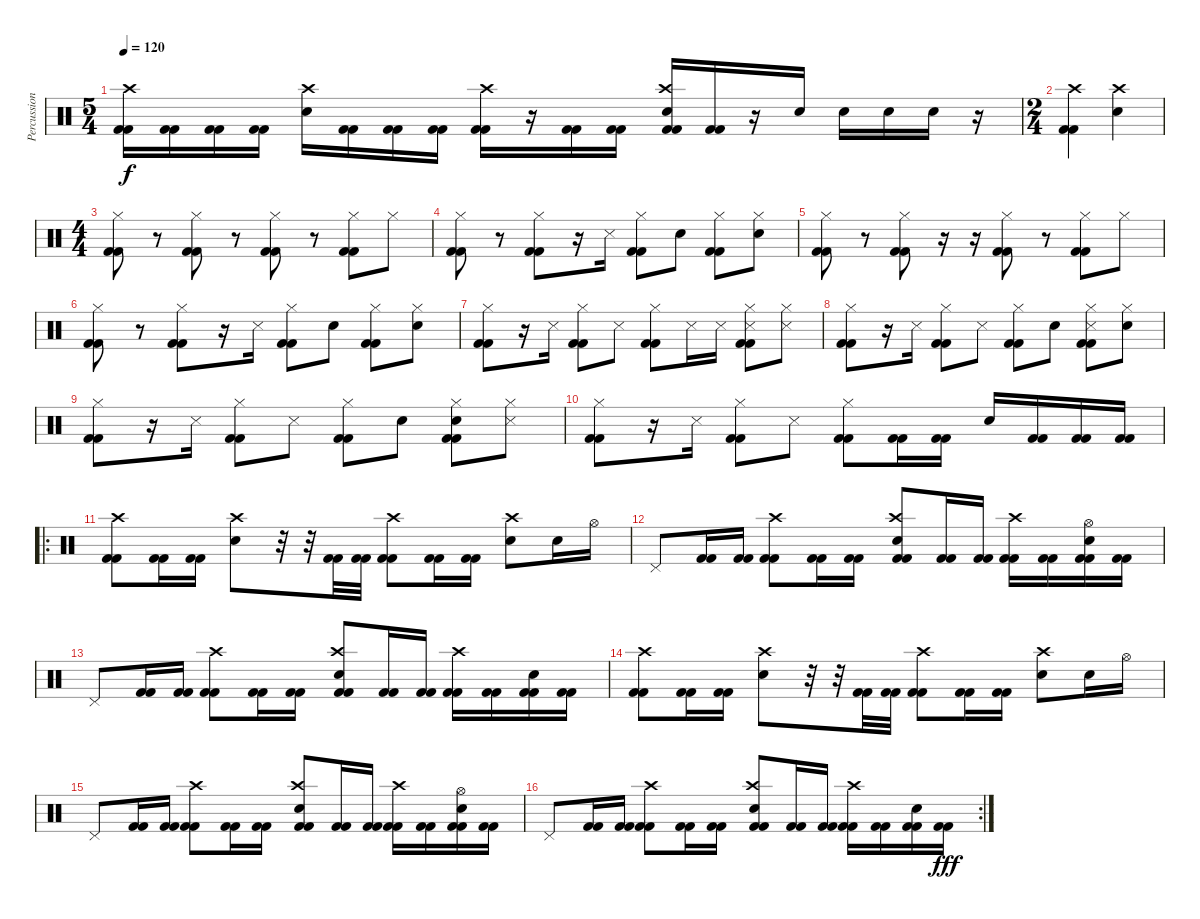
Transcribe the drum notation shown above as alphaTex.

\track ("Percussions" "Percussion") {instrument percussion}
\staff {score}
\articulation defaults
\ts (5 4)
\tempo 120
\clef neutral
\ks c
("Kick (hit) 2" "Kick (hit) 2" "Crash high (hit)").16{dy f} ("Kick (hit) 2" "Kick (hit) 2").16 ("Kick (hit) 2" "Kick (hit) 2").16 ("Kick (hit) 2" "Kick (hit) 2").16 ("Electric Snare (hit)" "Crash high (hit)").16 ("Kick (hit) 2" "Kick (hit) 2").16 ("Kick (hit) 2" "Kick (hit) 2").16 ("Kick (hit) 2" "Kick (hit) 2").16 ("Kick (hit) 2" "Kick (hit) 2" "Crash high (hit)").16 r.16 ("Kick (hit) 2" "Kick (hit) 2").16 ("Kick (hit) 2" "Kick (hit) 2").16 ("Kick (hit) 2" "Kick (hit) 2" "Electric Snare (hit)" "Crash high (hit)").16 ("Kick (hit) 2" "Kick (hit) 2").16 r.16 "Electric Snare (hit)".16 "Electric Snare (hit)".16 "Electric Snare (hit)".16 "Electric Snare (hit)".16 r.16 |
\ts (2 4)
("Kick (hit) 2" "Kick (hit) 2" "Crash high (hit)").4 ("Electric Snare (hit)" "Crash high (hit)").4 |
\ts (4 4)
("Kick (hit) 2" "Kick (hit) 2" "Hi-Hat (closed)").8 r.8 ("Kick (hit) 2" "Kick (hit) 2" "Hi-Hat (closed)").8 r.8 ("Kick (hit) 2" "Kick (hit) 2" "Hi-Hat (closed)").8 r.8 ("Kick (hit) 2" "Kick (hit) 2" "Hi-Hat (closed)").8 "Hi-Hat (closed)".8 |
("Kick (hit) 2" "Kick (hit) 2" "Hi-Hat (closed)").8 r.8 ("Kick (hit) 2" "Kick (hit) 2" "Hi-Hat (closed)").8 r.16 "Snare (side stick) 3".16 ("Kick (hit) 2" "Kick (hit) 2" "Hi-Hat (closed)").8 "Electric Snare (hit)".8 ("Kick (hit) 2" "Kick (hit) 2" "Hi-Hat (closed)").8 ("Electric Snare (hit)" "Hi-Hat (closed)").8 |
("Kick (hit) 2" "Kick (hit) 2" "Hi-Hat (closed)").8 r.8 ("Kick (hit) 2" "Kick (hit) 2" "Hi-Hat (closed)").8 r.16 r.16 ("Kick (hit) 2" "Kick (hit) 2" "Hi-Hat (closed)").8 r.8 ("Kick (hit) 2" "Kick (hit) 2" "Hi-Hat (closed)").8 "Hi-Hat (closed)".8 |
("Kick (hit) 2" "Kick (hit) 2" "Hi-Hat (closed)").8 r.8 ("Kick (hit) 2" "Kick (hit) 2" "Hi-Hat (closed)").8 r.16 "Snare (side stick) 3".16 ("Kick (hit) 2" "Kick (hit) 2" "Hi-Hat (closed)").8 "Electric Snare (hit)".8 ("Kick (hit) 2" "Kick (hit) 2" "Hi-Hat (closed)").8 ("Electric Snare (hit)" "Hi-Hat (closed)").8 |
("Kick (hit) 2" "Kick (hit) 2" "Hi-Hat (closed)").8 r.16 "Snare (side stick) 3".16 ("Kick (hit) 2" "Kick (hit) 2" "Hi-Hat (closed)").8 "Snare (side stick) 3".8 ("Kick (hit) 2" "Kick (hit) 2" "Hi-Hat (closed)").8 "Snare (side stick) 3".16 "Snare (side stick) 3".16 ("Kick (hit) 2" "Kick (hit) 2" "Snare (side stick) 3" "Hi-Hat (closed)").8 ("Snare (side stick) 3" "Hi-Hat (closed)").8 |
("Kick (hit) 2" "Kick (hit) 2" "Hi-Hat (closed)").8 r.16 "Snare (side stick) 3".16 ("Kick (hit) 2" "Kick (hit) 2" "Hi-Hat (closed)").8 "Snare (side stick) 3".8 ("Kick (hit) 2" "Kick (hit) 2" "Hi-Hat (closed)").8 "Electric Snare (hit)".8 ("Kick (hit) 2" "Kick (hit) 2" "Snare (side stick) 3" "Hi-Hat (closed)").8 ("Electric Snare (hit)" "Hi-Hat (closed)").8 |
("Kick (hit) 2" "Kick (hit) 2" "Hi-Hat (closed)").8 r.16 "Snare (side stick) 3".16 ("Kick (hit) 2" "Kick (hit) 2" "Hi-Hat (closed)").8 "Snare (side stick) 3".8 ("Kick (hit) 2" "Kick (hit) 2" "Hi-Hat (closed)").8 "Electric Snare (hit)".8 ("Kick (hit) 2" "Kick (hit) 2" "Electric Snare (hit)" "Hi-Hat (closed)").8 ("Snare (side stick) 3" "Hi-Hat (closed)").8 |
("Kick (hit) 2" "Kick (hit) 2" "Hi-Hat (closed)").8 r.16 "Snare (side stick) 3".16 ("Kick (hit) 2" "Kick (hit) 2" "Hi-Hat (closed)").8 "Snare (side stick) 3".8 ("Kick (hit) 2" "Kick (hit) 2" "Hi-Hat (closed)").8 ("Kick (hit) 2" "Kick (hit) 2").16 ("Kick (hit) 2" "Kick (hit) 2").16 "Electric Snare (hit)".16 ("Kick (hit) 2" "Kick (hit) 2").16 ("Kick (hit) 2" "Kick (hit) 2").16 ("Kick (hit) 2" "Kick (hit) 2").16 |
\ro
("Kick (hit) 2" "Kick (hit) 2" "Crash high (hit)").8 ("Kick (hit) 2" "Kick (hit) 2").16 ("Kick (hit) 2" "Kick (hit) 2").16 ("Electric Snare (hit)" "Crash high (hit)").8 r.32 r.32 ("Kick (hit) 2" "Kick (hit) 2").32 ("Kick (hit) 2" "Kick (hit) 2").32 ("Kick (hit) 2" "Kick (hit) 2" "Crash high (hit)").8 ("Kick (hit) 2" "Kick (hit) 2").16 ("Kick (hit) 2" "Kick (hit) 2").16 ("Electric Snare (hit)" "Crash high (hit)").8 "Electric Snare (hit)".16 "Hi-Hat (open)".16 |
"Pedal Hi-Hat (hit)".8 ("Kick (hit) 2" "Kick (hit) 2").16 ("Kick (hit) 2" "Kick (hit) 2").16 ("Kick (hit) 2" "Kick (hit) 2" "Crash high (hit)").8 ("Kick (hit) 2" "Kick (hit) 2").16 ("Kick (hit) 2" "Kick (hit) 2").16 ("Kick (hit) 2" "Kick (hit) 2" "Electric Snare (hit)" "Crash high (hit)").8 ("Kick (hit) 2" "Kick (hit) 2").16 ("Kick (hit) 2" "Kick (hit) 2").16 ("Kick (hit) 2" "Kick (hit) 2" "Crash high (hit)").16 ("Kick (hit) 2" "Kick (hit) 2").16 ("Kick (hit) 2" "Kick (hit) 2" "Electric Snare (hit)" "Hi-Hat (open)").16 ("Kick (hit) 2" "Kick (hit) 2").16 |
"Pedal Hi-Hat (hit)".8 ("Kick (hit) 2" "Kick (hit) 2").16 ("Kick (hit) 2" "Kick (hit) 2").16 ("Kick (hit) 2" "Kick (hit) 2" "Crash high (hit)").8 ("Kick (hit) 2" "Kick (hit) 2").16 ("Kick (hit) 2" "Kick (hit) 2").16 ("Kick (hit) 2" "Kick (hit) 2" "Electric Snare (hit)" "Crash high (hit)").8 ("Kick (hit) 2" "Kick (hit) 2").16 ("Kick (hit) 2" "Kick (hit) 2").16 ("Kick (hit) 2" "Kick (hit) 2" "Crash high (hit)").16 ("Kick (hit) 2" "Kick (hit) 2").16 ("Kick (hit) 2" "Kick (hit) 2" "Electric Snare (hit)").16 ("Kick (hit) 2" "Kick (hit) 2").16 |
("Kick (hit) 2" "Kick (hit) 2" "Crash high (hit)").8 ("Kick (hit) 2" "Kick (hit) 2").16 ("Kick (hit) 2" "Kick (hit) 2").16 ("Electric Snare (hit)" "Crash high (hit)").8 r.32 r.32 ("Kick (hit) 2" "Kick (hit) 2").32 ("Kick (hit) 2" "Kick (hit) 2").32 ("Kick (hit) 2" "Kick (hit) 2" "Crash high (hit)").8 ("Kick (hit) 2" "Kick (hit) 2").16 ("Kick (hit) 2" "Kick (hit) 2").16 ("Electric Snare (hit)" "Crash high (hit)").8 "Electric Snare (hit)".16 "Hi-Hat (open)".16 |
"Pedal Hi-Hat (hit)".8 ("Kick (hit) 2" "Kick (hit) 2").16 ("Kick (hit) 2" "Kick (hit) 2").16 ("Kick (hit) 2" "Kick (hit) 2" "Crash high (hit)").8 ("Kick (hit) 2" "Kick (hit) 2").16 ("Kick (hit) 2" "Kick (hit) 2").16 ("Kick (hit) 2" "Kick (hit) 2" "Electric Snare (hit)" "Crash high (hit)").8 ("Kick (hit) 2" "Kick (hit) 2").16 ("Kick (hit) 2" "Kick (hit) 2").16 ("Kick (hit) 2" "Kick (hit) 2" "Crash high (hit)").16 ("Kick (hit) 2" "Kick (hit) 2").16 ("Kick (hit) 2" "Kick (hit) 2" "Electric Snare (hit)" "Hi-Hat (open)").16 ("Kick (hit) 2" "Kick (hit) 2").16 |
\rc 2 "Pedal Hi-Hat (hit)".8
("Kick (hit) 2" "Kick (hit) 2").16 ("Kick (hit) 2" "Kick (hit) 2").16 ("Kick (hit) 2" "Kick (hit) 2" "Crash high (hit)").8 ("Kick (hit) 2" "Kick (hit) 2").16 ("Kick (hit) 2" "Kick (hit) 2").16 ("Kick (hit) 2" "Kick (hit) 2" "Electric Snare (hit)" "Crash high (hit)").8 ("Kick (hit) 2" "Kick (hit) 2").16 ("Kick (hit) 2" "Kick (hit) 2").16 ("Kick (hit) 2" "Kick (hit) 2" "Crash high (hit)").16 ("Kick (hit) 2" "Kick (hit) 2").16 ("Kick (hit) 2" "Kick (hit) 2" "Electric Snare (hit)").16 ("Kick (hit) 2" "Kick (hit) 2").16{dy fff}
